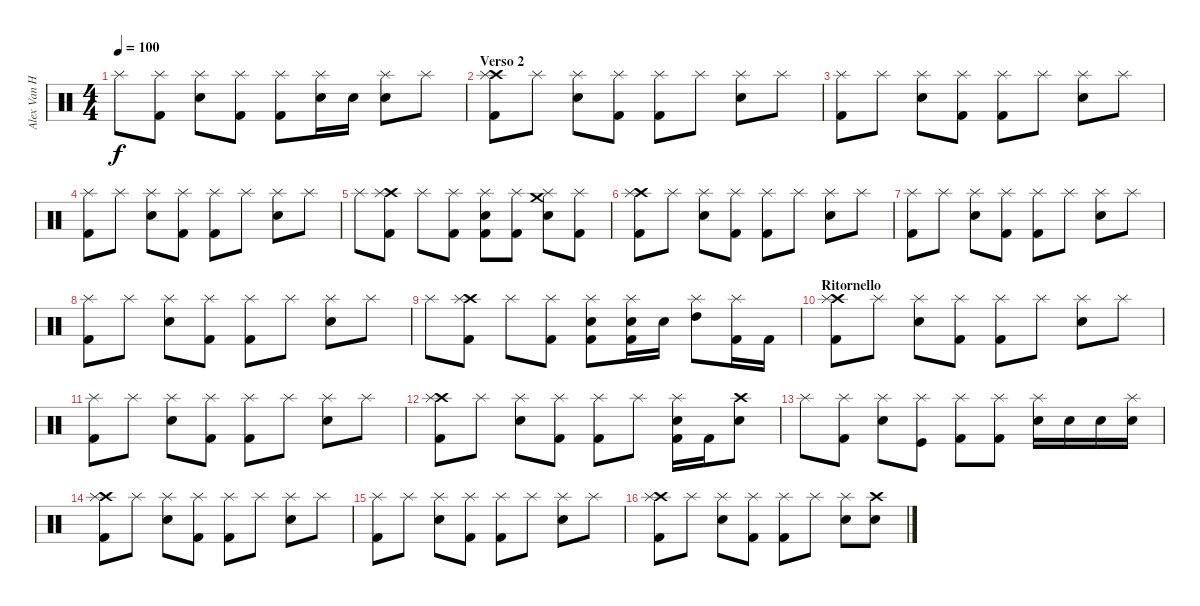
\track ("Alex Van Halen" "Alex Van H") {instrument percussion}
\staff {score}
\articulation defaults
\ts (4 4)
\tempo 100
\clef neutral
\ks c "Splash (hit)".8{dy f}
("Kick (hit) 2" "Splash (hit)").8 ("Electric Snare (hit)" "Splash (hit)").8 ("Kick (hit) 2" "Splash (hit)").8 ("Kick (hit) 2" "Splash (hit)").8 ("Electric Snare (hit)" "Splash (hit)").16 "Electric Snare (hit)".16 ("Snare (hit) 2" "Splash (hit)").8 "Splash (hit)".8 |
\section ("" "Verso 2")
("Crash high (hit)" "Kick (hit) 2" "Splash (hit)").8 "Splash (hit)".8 ("Snare (hit) 2" "Splash (hit)").8 ("Kick (hit) 2" "Splash (hit)").8 ("Kick (hit) 2" "Splash (hit)").8 "Splash (hit)".8 ("Snare (hit) 2" "Splash (hit)").8 "Splash (hit)".8 |
("Kick (hit) 2" "Splash (hit)").8 "Splash (hit)".8 ("Snare (hit) 2" "Splash (hit)").8 ("Kick (hit) 2" "Splash (hit)").8 ("Kick (hit) 2" "Splash (hit)").8 "Splash (hit)".8 ("Snare (hit) 2" "Splash (hit)").8 "Splash (hit)".8 |
("Kick (hit) 2" "Splash (hit)").8 "Splash (hit)".8 ("Snare (hit) 2" "Splash (hit)").8 ("Kick (hit) 2" "Splash (hit)").8 ("Kick (hit) 2" "Splash (hit)").8 "Splash (hit)".8 ("Snare (hit) 2" "Splash (hit)").8 "Splash (hit)".8 |
"Splash (hit)".8 ("Crash high (hit)" "Kick (hit) 2" "Splash (hit)").8 "Splash (hit)".8 ("Kick (hit) 2" "Splash (hit)").8 ("Snare (hit) 2" "Kick (hit) 2" "Splash (hit)").8 ("Kick (hit) 2" "Splash (hit)").8 ("Crash medium (hit)" "Snare (hit) 2" "Splash (hit)").8 ("Kick (hit) 2" "Splash (hit)").8 |
("Crash high (hit)" "Kick (hit) 2" "Splash (hit)").8 "Splash (hit)".8 ("Snare (hit) 2" "Splash (hit)").8 ("Kick (hit) 2" "Splash (hit)").8 ("Kick (hit) 2" "Splash (hit)").8 "Splash (hit)".8 ("Snare (hit) 2" "Splash (hit)").8 "Splash (hit)".8 |
("Kick (hit) 2" "Splash (hit)").8 "Splash (hit)".8 ("Snare (hit) 2" "Splash (hit)").8 ("Kick (hit) 2" "Splash (hit)").8 ("Kick (hit) 2" "Splash (hit)").8 "Splash (hit)".8 ("Snare (hit) 2" "Splash (hit)").8 "Splash (hit)".8 |
("Kick (hit) 2" "Splash (hit)").8 "Splash (hit)".8 ("Snare (hit) 2" "Splash (hit)").8 ("Kick (hit) 2" "Splash (hit)").8 ("Kick (hit) 2" "Splash (hit)").8 "Splash (hit)".8 ("Snare (hit) 2" "Splash (hit)").8 "Splash (hit)".8 |
"Splash (hit)".8 ("Crash high (hit)" "Kick (hit) 2" "Splash (hit)").8 "Splash (hit)".8 ("Kick (hit) 2" "Splash (hit)").8 ("Snare (hit) 2" "Kick (hit) 2" "Splash (hit)").8 ("Electric Snare (hit)" "Kick (hit) 2" "Splash (hit)").16 "Electric Snare (hit)".16 ("High Tom (hit)" "Splash (hit)").8 ("Kick (hit) 2" "Splash (hit)").16 "Kick (hit) 2".16 |
\section ("" "Ritornello")
("Crash high (hit)" "Kick (hit) 2" "Splash (hit)").8 "Splash (hit)".8 ("Snare (hit) 2" "Splash (hit)").8 ("Kick (hit) 2" "Splash (hit)").8 ("Kick (hit) 2" "Splash (hit)").8 "Splash (hit)".8 ("Snare (hit) 2" "Splash (hit)").8 "Splash (hit)".8 |
("Kick (hit) 2" "Splash (hit)").8 "Splash (hit)".8 ("Snare (hit) 2" "Splash (hit)").8 ("Kick (hit) 2" "Splash (hit)").8 ("Kick (hit) 2" "Splash (hit)").8 "Splash (hit)".8 ("Snare (hit) 2" "Splash (hit)").8 "Splash (hit)".8 |
("Crash high (hit)" "Kick (hit) 2" "Splash (hit)").8 "Splash (hit)".8 ("Snare (hit) 2" "Splash (hit)").8 ("Kick (hit) 2" "Splash (hit)").8 ("Kick (hit) 2" "Splash (hit)").8 "Splash (hit)".8 ("Snare (hit) 2" "Kick (hit) 2" "Splash (hit)").16 "Kick (hit) 2".16 ("Crash high (hit)" "Electric Snare (hit)").8 |
"Splash (hit)".8 ("Kick (hit) 2" "Splash (hit)").8 ("Snare (hit) 2" "Splash (hit)").8 ("Kick (hit)" "Splash (hit)").8 ("Kick (hit) 2" "Splash (hit)").8 ("Kick (hit) 2" "Splash (hit)").8 ("Electric Snare (hit)" "Splash (hit)").16 "Electric Snare (hit)".16 "Snare (hit) 2".16 ("Snare (hit) 2" "Splash (hit)").16 |
("Crash high (hit)" "Kick (hit) 2" "Splash (hit)").8 "Splash (hit)".8 ("Snare (hit) 2" "Splash (hit)").8 ("Kick (hit) 2" "Splash (hit)").8 ("Kick (hit) 2" "Splash (hit)").8 "Splash (hit)".8 ("Snare (hit) 2" "Splash (hit)").8 "Splash (hit)".8 |
("Kick (hit) 2" "Splash (hit)").8 "Splash (hit)".8 ("Snare (hit) 2" "Splash (hit)").8 ("Kick (hit) 2" "Splash (hit)").8 ("Kick (hit) 2" "Splash (hit)").8 "Splash (hit)".8 ("Snare (hit) 2" "Splash (hit)").8 "Splash (hit)".8 |
("Crash high (hit)" "Kick (hit) 2" "Splash (hit)").8 "Splash (hit)".8 ("Snare (hit) 2" "Splash (hit)").8 ("Kick (hit) 2" "Splash (hit)").8 ("Kick (hit) 2" "Splash (hit)").8 "Splash (hit)".8 ("Snare (hit) 2" "Splash (hit)").8 ("Crash high (hit)" "Electric Snare (hit)").8
